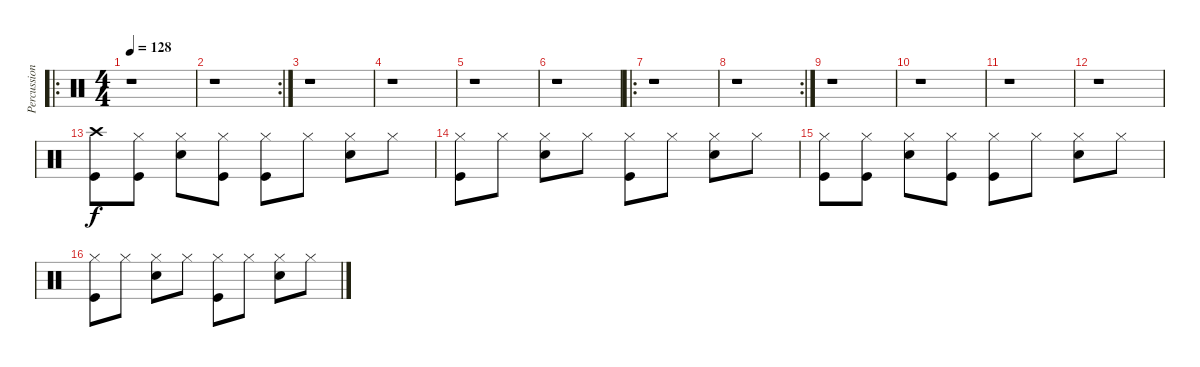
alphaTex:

\track ("Percussion" "Percussion") {instrument percussion}
\staff {score}
\articulation defaults
\ro
\ts (4 4)
\tempo 128
\clef neutral
\ks c
r.1{dy f} |
\rc 2
r.1 |
r.1 |
r.1 |
r.1 |
r.1 |
\ro
r.1 |
\rc 2
r.1 |
r.1 |
r.1 |
r.1 |
r.1 |
("Crash high (hit)" "Kick (hit)").8 ("Hi-Hat (closed)" "Kick (hit)").8 ("Hi-Hat (closed)" "Snare (hit) 2").8 ("Hi-Hat (closed)" "Kick (hit)").8 ("Hi-Hat (closed)" "Kick (hit)").8 "Hi-Hat (closed)".8 ("Hi-Hat (closed)" "Snare (hit) 2").8 "Hi-Hat (closed)".8 |
("Hi-Hat (closed)" "Kick (hit)").8 "Hi-Hat (closed)".8 ("Hi-Hat (closed)" "Snare (hit) 2").8 "Hi-Hat (closed)".8 ("Hi-Hat (closed)" "Kick (hit)").8 "Hi-Hat (closed)".8 ("Hi-Hat (closed)" "Snare (hit) 2").8 "Hi-Hat (closed)".8 |
("Hi-Hat (closed)" "Kick (hit)").8 ("Hi-Hat (closed)" "Kick (hit)").8 ("Hi-Hat (closed)" "Snare (hit) 2").8 ("Hi-Hat (closed)" "Kick (hit)").8 ("Hi-Hat (closed)" "Kick (hit)").8 "Hi-Hat (closed)".8 ("Hi-Hat (closed)" "Snare (hit) 2").8 "Hi-Hat (closed)".8 |
("Hi-Hat (closed)" "Kick (hit)").8 "Hi-Hat (closed)".8 ("Hi-Hat (closed)" "Snare (hit) 2").8 "Hi-Hat (closed)".8 ("Hi-Hat (closed)" "Kick (hit)").8 "Hi-Hat (closed)".8 ("Hi-Hat (closed)" "Snare (hit) 2").8 "Hi-Hat (closed)".8
